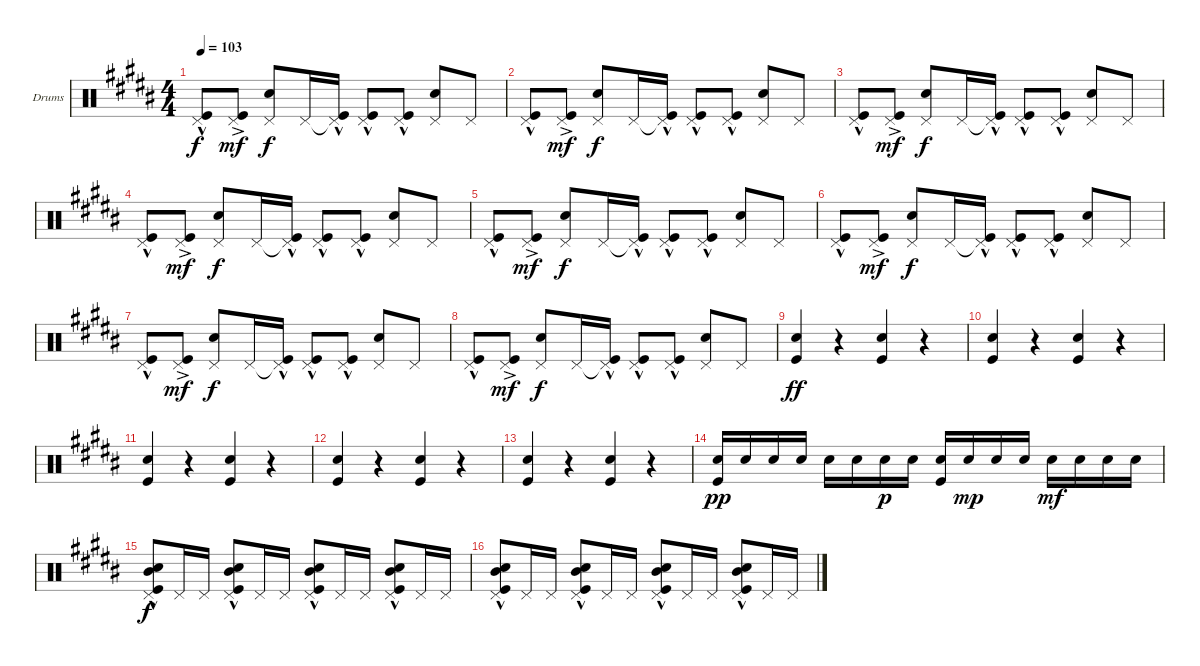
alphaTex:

\defaultSystemsLayout 4
\bracketExtendMode groupsimilarinstruments
\firstSystemTrackNameOrientation horizontal
\otherSystemsTrackNameOrientation horizontal
\track ("Drumkit" "Drums") {instrument percussion}
\staff {score}
\articulation defaults
\ts (4 4)
\tempo 103
\clef neutral
\ks b
("Pedal Hi-Hat (hit)" "Kick (hit)"{hac}).8{dy f} ("Kick (hit)"{ac} "Pedal Hi-Hat (hit)").8{dy mf} ("Pedal Hi-Hat (hit)" "Snare (hit) 2").8{dy f} "Pedal Hi-Hat (hit)".16 ("Pedal Hi-Hat (hit)"{t} "Kick (hit)"{hac}).16 ("Kick (hit)"{hac} "Pedal Hi-Hat (hit)").8 ("Pedal Hi-Hat (hit)" "Kick (hit)"{hac}).8 ("Pedal Hi-Hat (hit)" "Snare (hit) 2").8 "Pedal Hi-Hat (hit)".8 |
("Pedal Hi-Hat (hit)" "Kick (hit)"{hac}).8 ("Kick (hit)"{ac} "Pedal Hi-Hat (hit)").8{dy mf} ("Pedal Hi-Hat (hit)" "Snare (hit) 2").8{dy f} "Pedal Hi-Hat (hit)".16 ("Pedal Hi-Hat (hit)"{t} "Kick (hit)"{hac}).16 ("Kick (hit)"{hac} "Pedal Hi-Hat (hit)").8 ("Pedal Hi-Hat (hit)" "Kick (hit)"{hac}).8 ("Pedal Hi-Hat (hit)" "Snare (hit) 2").8 "Pedal Hi-Hat (hit)".8 |
("Pedal Hi-Hat (hit)" "Kick (hit)"{hac}).8 ("Kick (hit)"{ac} "Pedal Hi-Hat (hit)").8{dy mf} ("Pedal Hi-Hat (hit)" "Snare (hit) 2").8{dy f} "Pedal Hi-Hat (hit)".16 ("Pedal Hi-Hat (hit)"{t} "Kick (hit)"{hac}).16 ("Kick (hit)"{hac} "Pedal Hi-Hat (hit)").8 ("Pedal Hi-Hat (hit)" "Kick (hit)"{hac}).8 ("Pedal Hi-Hat (hit)" "Snare (hit) 2").8 "Pedal Hi-Hat (hit)".8 |
("Pedal Hi-Hat (hit)" "Kick (hit)"{hac}).8 ("Kick (hit)"{ac} "Pedal Hi-Hat (hit)").8{dy mf} ("Pedal Hi-Hat (hit)" "Snare (hit) 2").8{dy f} "Pedal Hi-Hat (hit)".16 ("Pedal Hi-Hat (hit)"{t} "Kick (hit)"{hac}).16 ("Kick (hit)"{hac} "Pedal Hi-Hat (hit)").8 ("Pedal Hi-Hat (hit)" "Kick (hit)"{hac}).8 ("Pedal Hi-Hat (hit)" "Snare (hit) 2").8 "Pedal Hi-Hat (hit)".8 |
("Pedal Hi-Hat (hit)" "Kick (hit)"{hac}).8 ("Kick (hit)"{ac} "Pedal Hi-Hat (hit)").8{dy mf} ("Pedal Hi-Hat (hit)" "Snare (hit) 2").8{dy f} "Pedal Hi-Hat (hit)".16 ("Pedal Hi-Hat (hit)"{t} "Kick (hit)"{hac}).16 ("Kick (hit)"{hac} "Pedal Hi-Hat (hit)").8 ("Pedal Hi-Hat (hit)" "Kick (hit)"{hac}).8 ("Pedal Hi-Hat (hit)" "Snare (hit) 2").8 "Pedal Hi-Hat (hit)".8 |
("Pedal Hi-Hat (hit)" "Kick (hit)"{hac}).8 ("Kick (hit)"{ac} "Pedal Hi-Hat (hit)").8{dy mf} ("Pedal Hi-Hat (hit)" "Snare (hit) 2").8{dy f} "Pedal Hi-Hat (hit)".16 ("Pedal Hi-Hat (hit)"{t} "Kick (hit)"{hac}).16 ("Kick (hit)"{hac} "Pedal Hi-Hat (hit)").8 ("Pedal Hi-Hat (hit)" "Kick (hit)"{hac}).8 ("Pedal Hi-Hat (hit)" "Snare (hit) 2").8 "Pedal Hi-Hat (hit)".8 |
("Pedal Hi-Hat (hit)" "Kick (hit)"{hac}).8 ("Kick (hit)"{ac} "Pedal Hi-Hat (hit)").8{dy mf} ("Pedal Hi-Hat (hit)" "Snare (hit) 2").8{dy f} "Pedal Hi-Hat (hit)".16 ("Pedal Hi-Hat (hit)"{t} "Kick (hit)"{hac}).16 ("Kick (hit)"{hac} "Pedal Hi-Hat (hit)").8 ("Pedal Hi-Hat (hit)" "Kick (hit)"{hac}).8 ("Pedal Hi-Hat (hit)" "Snare (hit) 2").8 "Pedal Hi-Hat (hit)".8 |
("Pedal Hi-Hat (hit)" "Kick (hit)"{hac}).8 ("Kick (hit)"{ac} "Pedal Hi-Hat (hit)").8{dy mf} ("Pedal Hi-Hat (hit)" "Snare (hit) 2").8{dy f} "Pedal Hi-Hat (hit)".16 ("Pedal Hi-Hat (hit)"{t} "Kick (hit)"{hac}).16 ("Kick (hit)"{hac} "Pedal Hi-Hat (hit)").8 ("Pedal Hi-Hat (hit)" "Kick (hit)"{hac}).8 ("Pedal Hi-Hat (hit)" "Snare (hit) 2").8 "Pedal Hi-Hat (hit)".8 |
("Snare (hit) 2" "Kick (hit)").4{dy ff} r.4 ("Kick (hit)" "Snare (hit) 2").4 r.4 |
("Snare (hit) 2" "Kick (hit)").4 r.4 ("Kick (hit)" "Snare (hit) 2").4 r.4 |
("Snare (hit) 2" "Kick (hit)").4 r.4 ("Kick (hit)" "Snare (hit) 2").4 r.4 |
("Snare (hit) 2" "Kick (hit)").4 r.4 ("Kick (hit)" "Snare (hit) 2").4 r.4 |
("Snare (hit) 2" "Kick (hit)").4 r.4 ("Kick (hit)" "Snare (hit) 2").4 r.4 |
("Snare (hit) 2" "Kick (hit)").16{dy pp} "Snare (hit) 2".16 "Snare (hit) 2".16 "Snare (hit) 2".16 "Snare (hit) 2".16 "Snare (hit) 2".16 "Snare (hit) 2".16{dy p} "Snare (hit) 2".16 ("Snare (hit) 2" "Kick (hit)").16 "Snare (hit) 2".16{dy mp} "Snare (hit) 2".16 "Snare (hit) 2".16 "Snare (hit) 2".16{dy mf} "Snare (hit) 2".16 "Snare (hit) 2".16 "Snare (hit) 2".16 |
("Snare (hit) 2" "Mid Tom (hit)"{hac} "Pedal Hi-Hat (hit)" "Kick (hit)"{hac}).8{dy f} "Pedal Hi-Hat (hit)".16 "Pedal Hi-Hat (hit)".16 ("Snare (hit) 2" "Mid Tom (hit)"{hac} "Pedal Hi-Hat (hit)" "Kick (hit)"{hac}).8 "Pedal Hi-Hat (hit)".16 "Pedal Hi-Hat (hit)".16 ("Snare (hit) 2" "Mid Tom (hit)"{hac} "Pedal Hi-Hat (hit)" "Kick (hit)"{hac}).8 "Pedal Hi-Hat (hit)".16 "Pedal Hi-Hat (hit)".16 ("Snare (hit) 2" "Mid Tom (hit)"{hac} "Pedal Hi-Hat (hit)" "Kick (hit)"{hac}).8 "Pedal Hi-Hat (hit)".16 "Pedal Hi-Hat (hit)".16 |
("Snare (hit) 2" "Mid Tom (hit)"{hac} "Pedal Hi-Hat (hit)" "Kick (hit)"{hac}).8 "Pedal Hi-Hat (hit)".16 "Pedal Hi-Hat (hit)".16 ("Snare (hit) 2" "Mid Tom (hit)"{hac} "Pedal Hi-Hat (hit)" "Kick (hit)"{hac}).8 "Pedal Hi-Hat (hit)".16 "Pedal Hi-Hat (hit)".16 ("Snare (hit) 2" "Mid Tom (hit)"{hac} "Pedal Hi-Hat (hit)" "Kick (hit)"{hac}).8 "Pedal Hi-Hat (hit)".16 "Pedal Hi-Hat (hit)".16 ("Snare (hit) 2" "Mid Tom (hit)"{hac} "Pedal Hi-Hat (hit)" "Kick (hit)"{hac}).8 "Pedal Hi-Hat (hit)".16 "Pedal Hi-Hat (hit)".16
